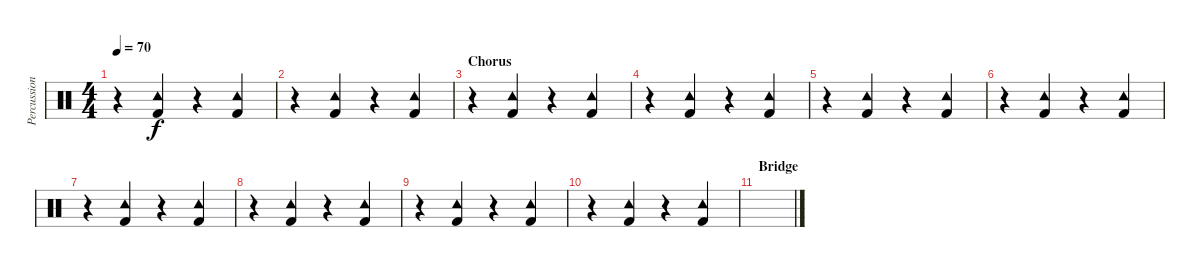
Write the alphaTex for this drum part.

\track ("Percussion" "Percussion") {instrument percussion}
\staff {score}
\articulation defaults
\ts (4 4)
\tempo 70
\clef neutral
\ks c
r.4{dy f} ("Tambourine (hit)" "Kick (hit) 2").4 r.4 ("Tambourine (hit)" "Kick (hit) 2").4 |
r.4 ("Tambourine (hit)" "Kick (hit) 2").4 r.4 ("Tambourine (hit)" "Kick (hit) 2").4 |
\section ("" "Chorus")
r.4 ("Tambourine (hit)" "Kick (hit) 2").4 r.4 ("Tambourine (hit)" "Kick (hit) 2").4 |
r.4 ("Tambourine (hit)" "Kick (hit) 2").4 r.4 ("Tambourine (hit)" "Kick (hit) 2").4 |
r.4 ("Tambourine (hit)" "Kick (hit) 2").4 r.4 ("Tambourine (hit)" "Kick (hit) 2").4 |
r.4 ("Tambourine (hit)" "Kick (hit) 2").4 r.4 ("Tambourine (hit)" "Kick (hit) 2").4 |
r.4 ("Tambourine (hit)" "Kick (hit) 2").4 r.4 ("Tambourine (hit)" "Kick (hit) 2").4 |
r.4 ("Tambourine (hit)" "Kick (hit) 2").4 r.4 ("Tambourine (hit)" "Kick (hit) 2").4 |
r.4 ("Tambourine (hit)" "Kick (hit) 2").4 r.4 ("Tambourine (hit)" "Kick (hit) 2").4 |
r.4 ("Tambourine (hit)" "Kick (hit) 2").4 r.4 ("Tambourine (hit)" "Kick (hit) 2").4 |
\section ("" "Bridge")
